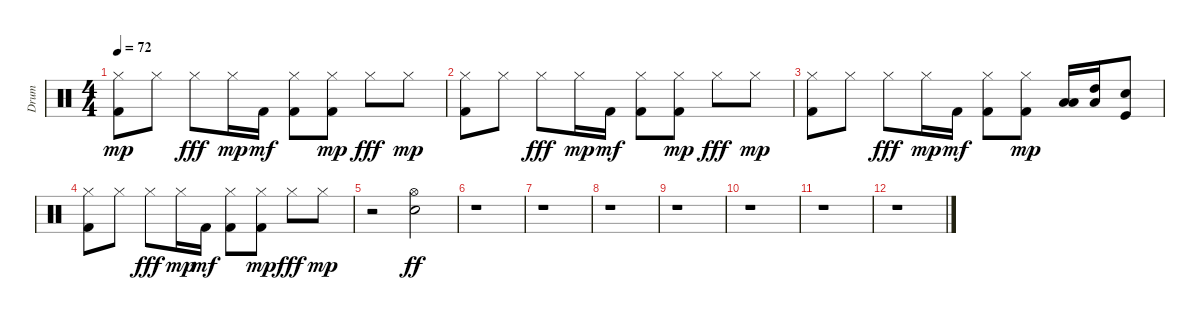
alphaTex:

\track ("Drum" "Drum") {instrument percussion}
\staff {score}
\articulation defaults
\ts (4 4)
\tempo 72
\clef neutral
\ks c
("Hi-Hat (closed)" "Kick (hit) 2").8{dy mp} "Hi-Hat (closed)".8 "Hi-Hat (closed)".8{dy fff} "Hi-Hat (closed)".16{dy mp} "Kick (hit) 2".16{dy mf} ("Hi-Hat (closed)" "Kick (hit) 2").8 ("Hi-Hat (closed)" "Kick (hit) 2").8{dy mp} "Hi-Hat (closed)".8{dy fff} "Hi-Hat (closed)".8{dy mp} |
("Hi-Hat (closed)" "Kick (hit) 2").8 "Hi-Hat (closed)".8 "Hi-Hat (closed)".8{dy fff} "Hi-Hat (closed)".16{dy mp} "Kick (hit) 2".16{dy mf} ("Hi-Hat (closed)" "Kick (hit) 2").8 ("Hi-Hat (closed)" "Kick (hit) 2").8{dy mp} "Hi-Hat (closed)".8{dy fff} "Hi-Hat (closed)".8{dy mp} |
("Hi-Hat (closed)" "Kick (hit) 2").8 "Hi-Hat (closed)".8 "Hi-Hat (closed)".8{dy fff} "Hi-Hat (closed)".16{dy mp} "Kick (hit) 2".16{dy mf} ("Hi-Hat (closed)" "Kick (hit) 2").8 ("Hi-Hat (closed)" "Kick (hit) 2").8{dy mp} ("Low Tom (hit)" "Low Floor Tom (hit)").16 ("Low Tom (hit)" "High Tom (hit)").16 ("Kick (hit)" "Electric Snare (hit)").8 |
("Hi-Hat (closed)" "Kick (hit) 2").8 "Hi-Hat (closed)".8 "Hi-Hat (closed)".8{dy fff} "Hi-Hat (closed)".16{dy mp} "Kick (hit) 2".16{dy mf} ("Hi-Hat (closed)" "Kick (hit) 2").8 ("Hi-Hat (closed)" "Kick (hit) 2").8{dy mp} "Hi-Hat (closed)".8{dy fff} "Hi-Hat (closed)".8{dy mp} |
r.2 ("Hi-Hat (open)" "Electric Snare (hit)").2{dy ff} |
r.1 |
r.1 |
r.1 |
r.1 |
r.1 |
r.1 |
r.1
